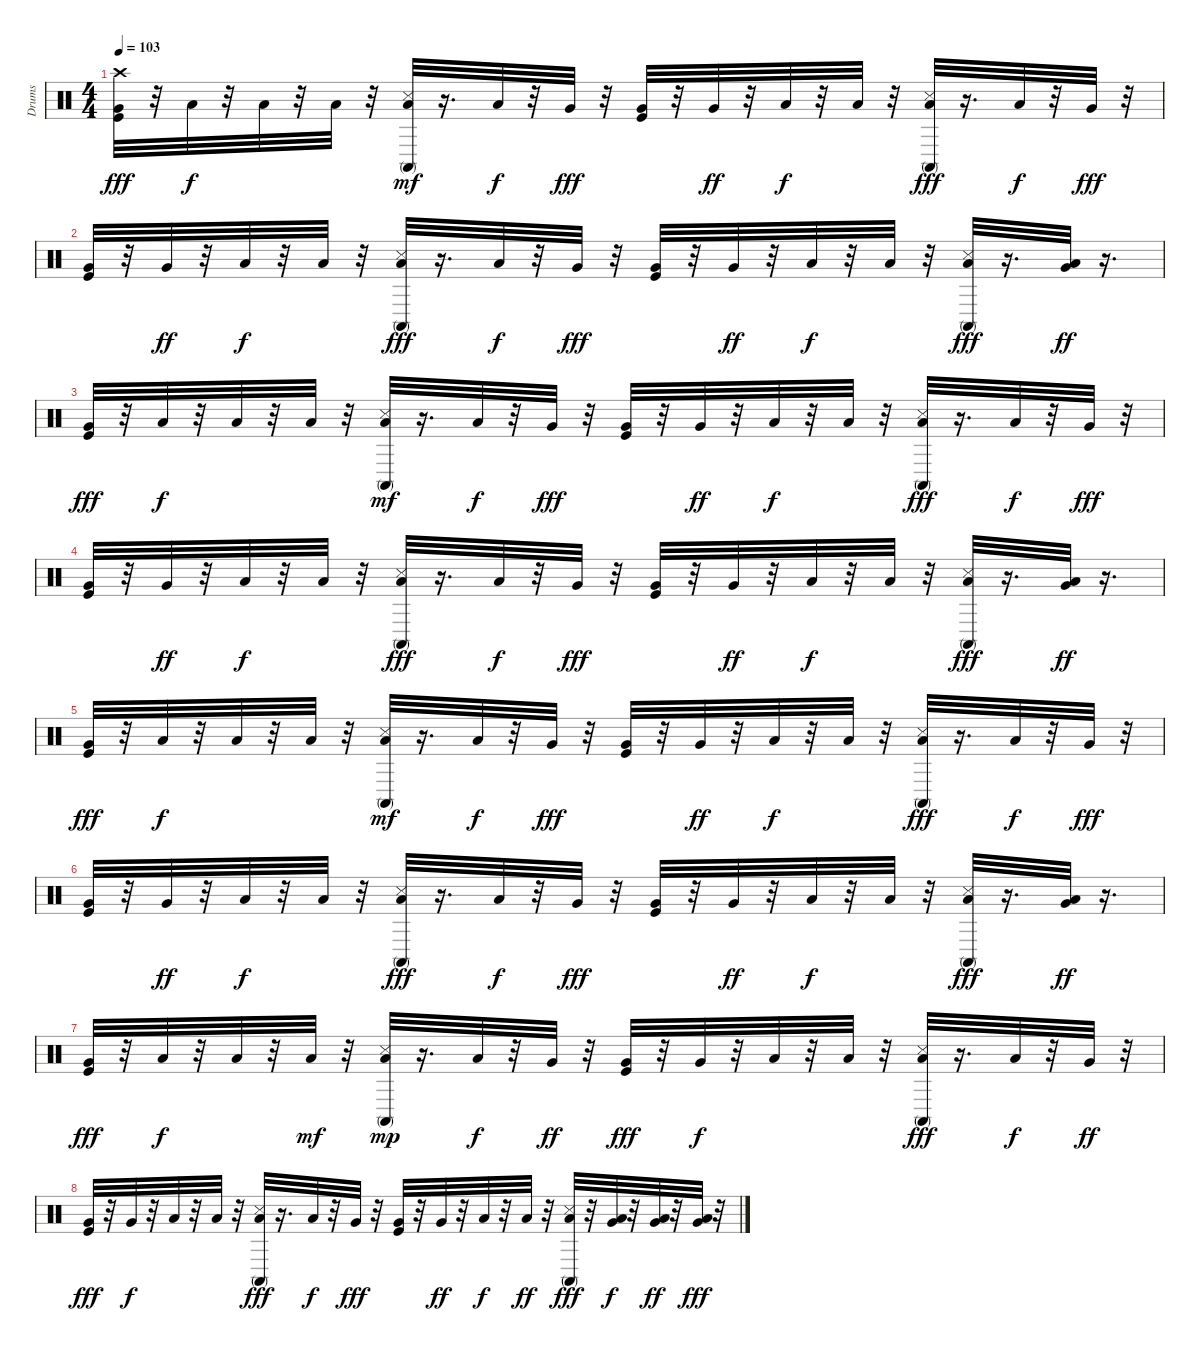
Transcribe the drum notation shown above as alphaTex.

\track ("Drums" "Drums") {instrument percussion}
\staff {score}
\articulation defaults
\ts (4 4)
\tempo 103
\clef neutral
\ks c
("Crash high (hit)" "Very Low Tom (hit)" "Kick (hit)").32{dy fff} r.32 "Low Floor Tom (hit)".32{dy f} r.32 "Low Floor Tom (hit)".32 r.32 "Low Floor Tom (hit)".32 r.32 ("Conga high (mute)" "Snare (side stick) 3" "Low Floor Tom (hit)").32{dy mf} r.16{d} "Low Floor Tom (hit)".32{dy f} r.32 "Very Low Tom (hit)".32{dy fff} r.32 ("Very Low Tom (hit)" "Kick (hit)").32 r.32 "Very Low Tom (hit)".32{dy ff} r.32 "Low Floor Tom (hit)".32{dy f} r.32 "Low Floor Tom (hit)".32 r.32 ("Conga high (mute)" "Low Floor Tom (hit)" "Snare (side stick) 3").32{dy fff} r.16{d} "Low Floor Tom (hit)".32{dy f} r.32 "Very Low Tom (hit)".32{dy fff} r.32 |
("Very Low Tom (hit)" "Kick (hit)").32 r.32 "Very Low Tom (hit)".32{dy ff} r.32 "Low Floor Tom (hit)".32{dy f} r.32 "Low Floor Tom (hit)".32 r.32 ("Conga high (mute)" "Low Floor Tom (hit)" "Snare (side stick) 3").32{dy fff} r.16{d} "Low Floor Tom (hit)".32{dy f} r.32 "Very Low Tom (hit)".32{dy fff} r.32 ("Very Low Tom (hit)" "Kick (hit)").32 r.32 "Very Low Tom (hit)".32{dy ff} r.32 "Low Floor Tom (hit)".32{dy f} r.32 "Low Floor Tom (hit)".32 r.32 ("Conga high (mute)" "Low Floor Tom (hit)" "Snare (side stick) 3").32{dy fff} r.16{d} ("Low Floor Tom (hit)" "Very Low Tom (hit)").32{dy ff} r.16{d} |
("Very Low Tom (hit)" "Kick (hit)").32{dy fff} r.32 "Low Floor Tom (hit)".32{dy f} r.32 "Low Floor Tom (hit)".32 r.32 "Low Floor Tom (hit)".32 r.32 ("Conga high (mute)" "Snare (side stick) 3" "Low Floor Tom (hit)").32{dy mf} r.16{d} "Low Floor Tom (hit)".32{dy f} r.32 "Very Low Tom (hit)".32{dy fff} r.32 ("Very Low Tom (hit)" "Kick (hit)").32 r.32 "Very Low Tom (hit)".32{dy ff} r.32 "Low Floor Tom (hit)".32{dy f} r.32 "Low Floor Tom (hit)".32 r.32 ("Conga high (mute)" "Low Floor Tom (hit)" "Snare (side stick) 3").32{dy fff} r.16{d} "Low Floor Tom (hit)".32{dy f} r.32 "Very Low Tom (hit)".32{dy fff} r.32 |
("Very Low Tom (hit)" "Kick (hit)").32 r.32 "Very Low Tom (hit)".32{dy ff} r.32 "Low Floor Tom (hit)".32{dy f} r.32 "Low Floor Tom (hit)".32 r.32 ("Conga high (mute)" "Low Floor Tom (hit)" "Snare (side stick) 3").32{dy fff} r.16{d} "Low Floor Tom (hit)".32{dy f} r.32 "Very Low Tom (hit)".32{dy fff} r.32 ("Very Low Tom (hit)" "Kick (hit)").32 r.32 "Very Low Tom (hit)".32{dy ff} r.32 "Low Floor Tom (hit)".32{dy f} r.32 "Low Floor Tom (hit)".32 r.32 ("Conga high (mute)" "Low Floor Tom (hit)" "Snare (side stick) 3").32{dy fff} r.16{d} ("Low Floor Tom (hit)" "Very Low Tom (hit)").32{dy ff} r.16{d} |
("Very Low Tom (hit)" "Kick (hit)").32{dy fff} r.32 "Low Floor Tom (hit)".32{dy f} r.32 "Low Floor Tom (hit)".32 r.32 "Low Floor Tom (hit)".32 r.32 ("Conga high (mute)" "Snare (side stick) 3" "Low Floor Tom (hit)").32{dy mf} r.16{d} "Low Floor Tom (hit)".32{dy f} r.32 "Very Low Tom (hit)".32{dy fff} r.32 ("Very Low Tom (hit)" "Kick (hit)").32 r.32 "Very Low Tom (hit)".32{dy ff} r.32 "Low Floor Tom (hit)".32{dy f} r.32 "Low Floor Tom (hit)".32 r.32 ("Conga high (mute)" "Low Floor Tom (hit)" "Snare (side stick) 3").32{dy fff} r.16{d} "Low Floor Tom (hit)".32{dy f} r.32 "Very Low Tom (hit)".32{dy fff} r.32 |
("Very Low Tom (hit)" "Kick (hit)").32 r.32 "Very Low Tom (hit)".32{dy ff} r.32 "Low Floor Tom (hit)".32{dy f} r.32 "Low Floor Tom (hit)".32 r.32 ("Conga high (mute)" "Low Floor Tom (hit)" "Snare (side stick) 3").32{dy fff} r.16{d} "Low Floor Tom (hit)".32{dy f} r.32 "Very Low Tom (hit)".32{dy fff} r.32 ("Very Low Tom (hit)" "Kick (hit)").32 r.32 "Very Low Tom (hit)".32{dy ff} r.32 "Low Floor Tom (hit)".32{dy f} r.32 "Low Floor Tom (hit)".32 r.32 ("Conga high (mute)" "Low Floor Tom (hit)" "Snare (side stick) 3").32{dy fff} r.16{d} ("Low Floor Tom (hit)" "Very Low Tom (hit)").32{dy ff} r.16{d} |
("Very Low Tom (hit)" "Kick (hit)").32{dy fff} r.32 "Low Floor Tom (hit)".32{dy f} r.32 "Low Floor Tom (hit)".32 r.32 "Low Floor Tom (hit)".32{dy mf} r.32 ("Conga high (mute)" "Snare (side stick) 3" "Low Floor Tom (hit)").32{dy mp} r.16{d} "Low Floor Tom (hit)".32{dy f} r.32 "Very Low Tom (hit)".32{dy ff} r.32 ("Very Low Tom (hit)" "Kick (hit)").32{dy fff} r.32 "Very Low Tom (hit)".32{dy f} r.32 "Low Floor Tom (hit)".32 r.32 "Low Floor Tom (hit)".32 r.32 ("Conga high (mute)" "Low Floor Tom (hit)" "Snare (side stick) 3").32{dy fff} r.16{d} "Low Floor Tom (hit)".32{dy f} r.32 "Very Low Tom (hit)".32{dy ff} r.32 |
("Very Low Tom (hit)" "Kick (hit)").32{dy fff} r.32 "Very Low Tom (hit)".32{dy f} r.32 "Low Floor Tom (hit)".32 r.32 "Low Floor Tom (hit)".32 r.32 ("Conga high (mute)" "Low Floor Tom (hit)" "Snare (side stick) 3").32{dy fff} r.16{d} "Low Floor Tom (hit)".32{dy f} r.32 "Very Low Tom (hit)".32{dy fff} r.32 ("Very Low Tom (hit)" "Kick (hit)").32 r.32 "Very Low Tom (hit)".32{dy ff} r.32 "Low Floor Tom (hit)".32{dy f} r.32 "Low Floor Tom (hit)".32{dy ff} r.32 ("Conga high (mute)" "Low Floor Tom (hit)" "Snare (side stick) 3").32{dy fff} r.32 ("Very Low Tom (hit)" "Low Floor Tom (hit)").32{dy f} r.32 ("Very Low Tom (hit)" "Low Floor Tom (hit)").32{dy ff} r.32 ("Very Low Tom (hit)" "Low Floor Tom (hit)").32{dy fff} r.32
